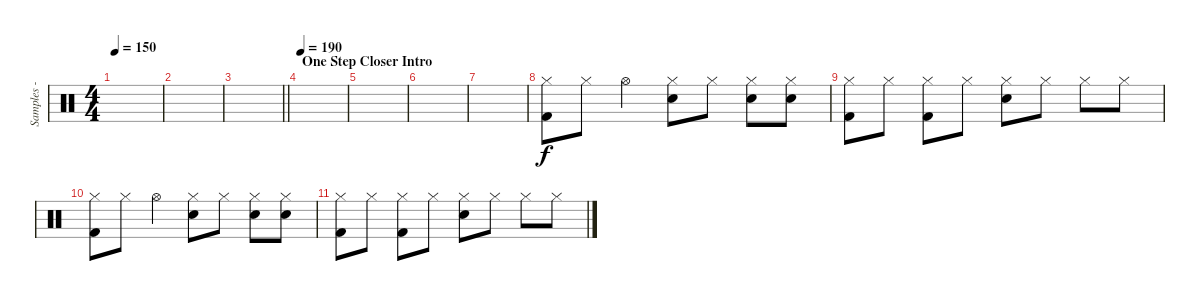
\track ("Samples - Joe Hahn" "Samples - ") {instrument percussion}
\staff {score}
\articulation defaults
\ts (4 4)
\tempo 150
\clef neutral
\ks c
|
|
\barLineRight lightlight
|
\section ("" "One Step Closer Intro")
\tempo 190
|
|
|
|
("Hi-Hat (closed)" "Kick (hit) 2").8{dy f} "Hi-Hat (closed)".8 "Hi-Hat (open)".4 ("Hi-Hat (closed)" "Snare (hit) 2").8 "Hi-Hat (closed)".8 ("Hi-Hat (closed)" "Snare (hit) 2").8 ("Hi-Hat (closed)" "Snare (hit) 2").8 |
("Hi-Hat (closed)" "Kick (hit) 2").8 "Hi-Hat (closed)".8 ("Hi-Hat (closed)" "Kick (hit) 2").8 "Hi-Hat (closed)".8 ("Hi-Hat (closed)" "Snare (hit) 2").8 "Hi-Hat (closed)".8 "Hi-Hat (closed)".8 "Hi-Hat (closed)".8 |
("Hi-Hat (closed)" "Kick (hit) 2").8 "Hi-Hat (closed)".8 "Hi-Hat (open)".4 ("Hi-Hat (closed)" "Snare (hit) 2").8 "Hi-Hat (closed)".8 ("Hi-Hat (closed)" "Snare (hit) 2").8 ("Hi-Hat (closed)" "Snare (hit) 2").8 |
("Hi-Hat (closed)" "Kick (hit) 2").8 "Hi-Hat (closed)".8 ("Hi-Hat (closed)" "Kick (hit) 2").8 "Hi-Hat (closed)".8 ("Hi-Hat (closed)" "Snare (hit) 2").8 "Hi-Hat (closed)".8 "Hi-Hat (closed)".8 "Hi-Hat (closed)".8
